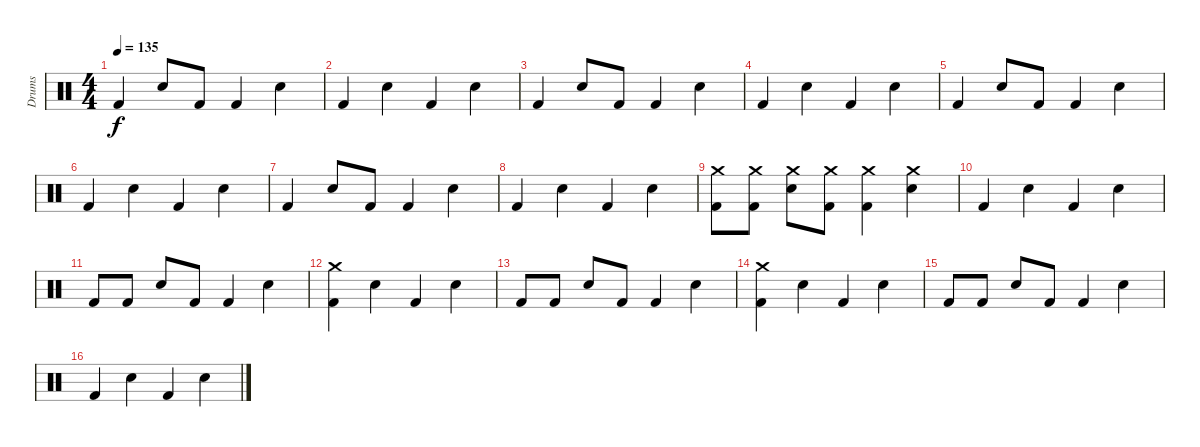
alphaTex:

\track ("Drums" "Drums") {instrument percussion}
\staff {score}
\articulation defaults
\ts (4 4)
\tempo 135
\clef neutral
\ks c "Kick (hit) 2".4{dy f} "Electric Snare (hit)".8 "Kick (hit) 2".8 "Kick (hit) 2".4 "Electric Snare (hit)".4
|
"Kick (hit) 2".4 "Electric Snare (hit)".4 "Kick (hit) 2".4 "Electric Snare (hit)".4 |
"Kick (hit) 2".4 "Electric Snare (hit)".8 "Kick (hit) 2".8 "Kick (hit) 2".4 "Electric Snare (hit)".4 |
"Kick (hit) 2".4 "Electric Snare (hit)".4 "Kick (hit) 2".4 "Electric Snare (hit)".4 |
"Kick (hit) 2".4 "Electric Snare (hit)".8 "Kick (hit) 2".8 "Kick (hit) 2".4 "Electric Snare (hit)".4 |
"Kick (hit) 2".4 "Electric Snare (hit)".4 "Kick (hit) 2".4 "Electric Snare (hit)".4 |
"Kick (hit) 2".4 "Electric Snare (hit)".8 "Kick (hit) 2".8 "Kick (hit) 2".4 "Electric Snare (hit)".4 |
"Kick (hit) 2".4 "Electric Snare (hit)".4 "Kick (hit) 2".4 "Electric Snare (hit)".4 |
("Crash medium (hit)" "Kick (hit) 2").8 ("Crash medium (hit)" "Kick (hit) 2").8 ("Crash medium (hit)" "Electric Snare (hit)").8 ("Crash medium (hit)" "Kick (hit) 2").8 ("Crash medium (hit)" "Kick (hit) 2").4 ("Crash medium (hit)" "Electric Snare (hit)").4 |
"Kick (hit) 2".4 "Electric Snare (hit)".4 "Kick (hit) 2".4 "Electric Snare (hit)".4 |
"Kick (hit) 2".8 "Kick (hit) 2".8 "Electric Snare (hit)".8 "Kick (hit) 2".8 "Kick (hit) 2".4 "Electric Snare (hit)".4 |
("Crash medium (hit)" "Kick (hit) 2").4 "Electric Snare (hit)".4 "Kick (hit) 2".4 "Electric Snare (hit)".4 |
"Kick (hit) 2".8 "Kick (hit) 2".8 "Electric Snare (hit)".8 "Kick (hit) 2".8 "Kick (hit) 2".4 "Electric Snare (hit)".4 |
("Crash medium (hit)" "Kick (hit) 2").4 "Electric Snare (hit)".4 "Kick (hit) 2".4 "Electric Snare (hit)".4 |
"Kick (hit) 2".8 "Kick (hit) 2".8 "Electric Snare (hit)".8 "Kick (hit) 2".8 "Kick (hit) 2".4 "Electric Snare (hit)".4 |
"Kick (hit) 2".4 "Electric Snare (hit)".4 "Kick (hit) 2".4 "Electric Snare (hit)".4
